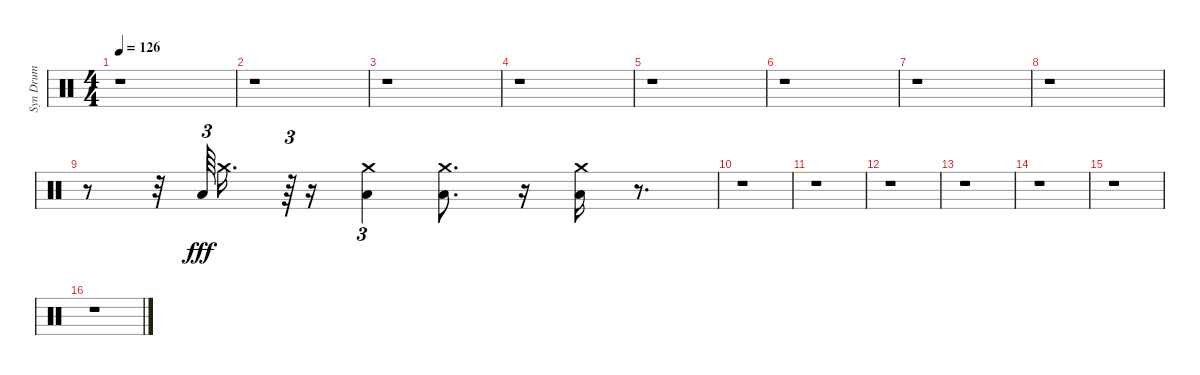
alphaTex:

\track ("Syn Drum" "Syn Drum") {instrument percussion}
\staff {score}
\articulation defaults
\ts (4 4)
\tempo 126
\clef neutral
\ks c
r.1{dy fff} |
r.1 |
r.1 |
r.1 |
r.1 |
r.1 |
r.1 |
r.1 |
r.8 r.32 "Low Tom (hit)".64{tu (3 2)} "Crash medium (hit)".16{d} r.64{tu (3 2)} r.16 ("Crash medium (hit)" "Low Tom (hit)").4{tu (3 2)} ("Crash medium (hit)" "Low Tom (hit)").8{d} r.16 ("Low Tom (hit)" "Crash medium (hit)").16 r.8{d} |
r.1 |
r.1 |
r.1 |
r.1 |
r.1 |
r.1 |
r.1
